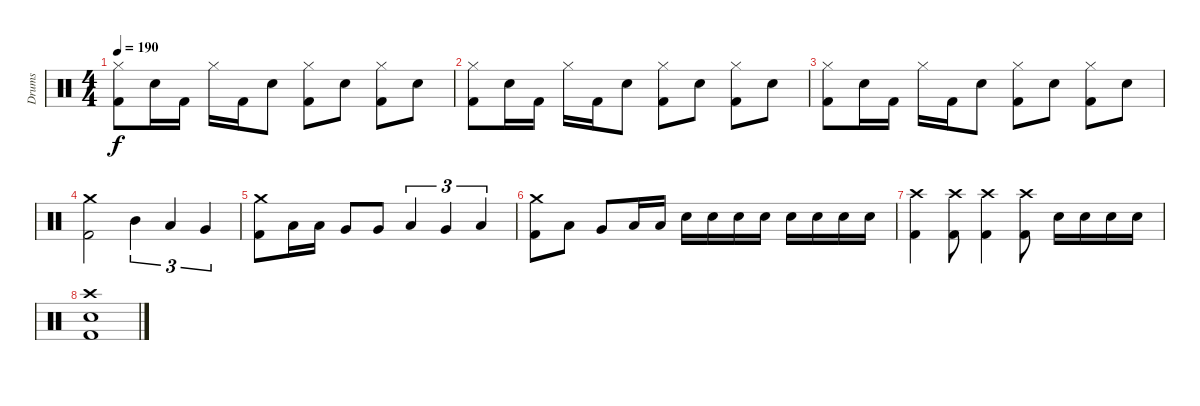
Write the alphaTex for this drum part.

\track ("Drums" "Drums") {instrument percussion}
\staff {score}
\articulation defaults
\ts (4 4)
\tempo 190
\clef neutral
\ks c
("Hi-Hat (closed)" "Kick (hit) 2").8{dy f} "Electric Snare (hit)".16 "Kick (hit) 2".16 "Hi-Hat (closed)".16 "Kick (hit) 2".16 "Electric Snare (hit)".8 ("Hi-Hat (closed)" "Kick (hit) 2").8 "Electric Snare (hit)".8 ("Hi-Hat (closed)" "Kick (hit) 2").8 "Electric Snare (hit)".8 |
("Hi-Hat (closed)" "Kick (hit) 2").8 "Electric Snare (hit)".16 "Kick (hit) 2".16 "Hi-Hat (closed)".16 "Kick (hit) 2".16 "Electric Snare (hit)".8 ("Hi-Hat (closed)" "Kick (hit) 2").8 "Electric Snare (hit)".8 ("Hi-Hat (closed)" "Kick (hit) 2").8 "Electric Snare (hit)".8 |
("Hi-Hat (closed)" "Kick (hit) 2").8 "Electric Snare (hit)".16 "Kick (hit) 2".16 "Hi-Hat (closed)".16 "Kick (hit) 2".16 "Electric Snare (hit)".8 ("Hi-Hat (closed)" "Kick (hit) 2").8 "Electric Snare (hit)".8 ("Hi-Hat (closed)" "Kick (hit) 2").8 "Electric Snare (hit)".8 |
("Crash medium (hit)" "Kick (hit) 2").2 "Mid Tom (hit)".4{tu (3 2)} "Low Tom (hit)".4{tu (3 2)} "Very Low Tom (hit)".4{tu (3 2)} |
("Crash medium (hit)" "Kick (hit) 2").8 "Low Tom (hit)".16 "Low Tom (hit)".16 "Very Low Tom (hit)".8 "Very Low Tom (hit)".8 "Low Tom (hit)".4{tu (3 2)} "Very Low Tom (hit)".4{tu (3 2)} "Low Floor Tom (hit)".4{tu (3 2)} |
("Crash medium (hit)" "Kick (hit) 2").8 "Low Tom (hit)".8 "Very Low Tom (hit)".8 "Low Tom (hit)".16 "Low Tom (hit)".16 "Electric Snare (hit)".16 "Electric Snare (hit)".16 "Electric Snare (hit)".16 "Electric Snare (hit)".16 "Electric Snare (hit)".16 "Electric Snare (hit)".16 "Electric Snare (hit)".16 "Electric Snare (hit)".16 |
("Crash high (hit)" "Kick (hit) 2").4 ("Crash high (hit)" "Kick (hit) 2").8 ("Crash high (hit)" "Kick (hit) 2").4 ("Crash high (hit)" "Kick (hit) 2").8 "Electric Snare (hit)".16 "Electric Snare (hit)".16 "Electric Snare (hit)".16 "Electric Snare (hit)".16 |
("Crash high (hit)" "Electric Snare (hit)" "Kick (hit) 2").1
